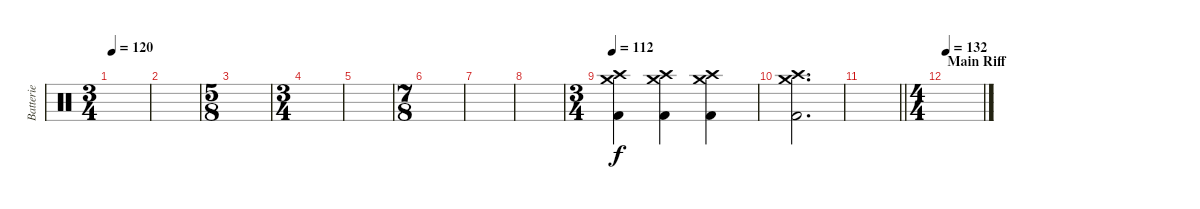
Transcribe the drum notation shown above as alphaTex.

\track ("Batterie" "Batterie") {instrument percussion}
\staff {score}
\articulation defaults
\ts (3 4)
\tempo 120
\clef neutral
\ks c
|
|
\ts (5 8)
|
\ts (3 4)
|
|
\ts (7 8)
|
|
|
\ts (3 4)
\tempo 112
("Crash medium (hit)" "Crash high (hit)" "Kick (hit) 2").4 ("Crash medium (hit)" "Crash high (hit)" "Kick (hit) 2").4 ("Crash medium (hit)" "Crash high (hit)" "Kick (hit) 2").4 |
("Crash medium (hit)" "Crash high (hit)" "Kick (hit) 2").2{d} |
\barLineRight lightlight
|
\ts (4 4)
\section ("" "Main Riff")
\tempo 132
